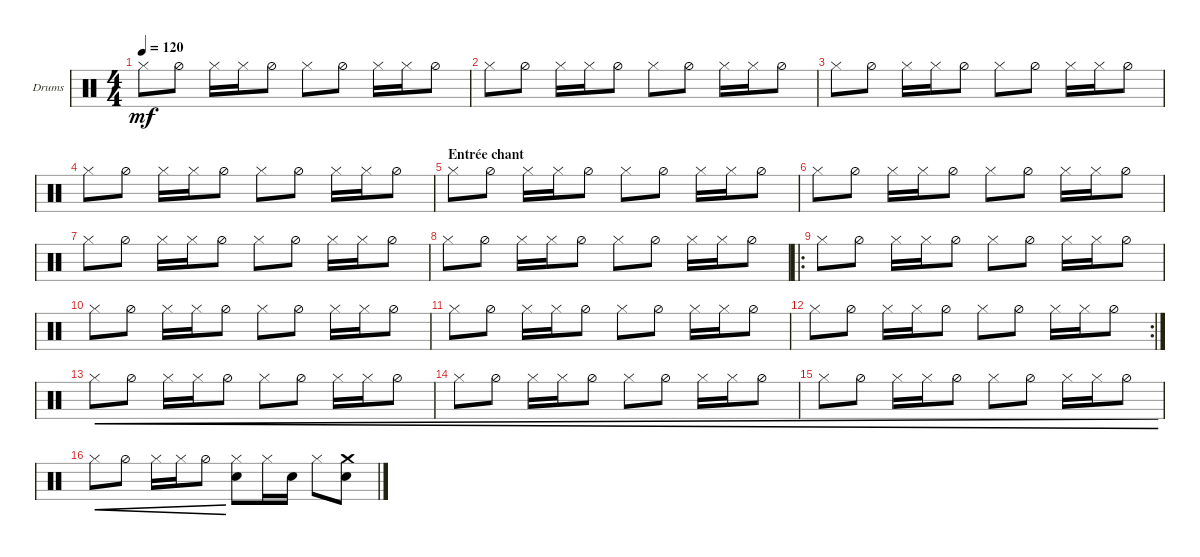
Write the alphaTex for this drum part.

\defaultSystemsLayout 4
\bracketExtendMode groupsimilarinstruments
\firstSystemTrackNameOrientation horizontal
\otherSystemsTrackNameOrientation horizontal
\track ("Drumkit" "Drums") {instrument percussion}
\staff {score}
\articulation defaults
\ts (4 4)
\tempo 120
\clef neutral
\ks c "Hi-Hat (closed)".8{dy mf} "Hi-Hat (half)".8 "Hi-Hat (closed)".16 "Hi-Hat (closed)".16 "Hi-Hat (half)".8 "Hi-Hat (closed)".8 "Hi-Hat (half)".8 "Hi-Hat (closed)".16 "Hi-Hat (closed)".16 "Hi-Hat (half)".8
|
"Hi-Hat (closed)".8 "Hi-Hat (half)".8 "Hi-Hat (closed)".16 "Hi-Hat (closed)".16 "Hi-Hat (half)".8 "Hi-Hat (closed)".8 "Hi-Hat (half)".8 "Hi-Hat (closed)".16 "Hi-Hat (closed)".16 "Hi-Hat (half)".8 |
"Hi-Hat (closed)".8 "Hi-Hat (half)".8 "Hi-Hat (closed)".16 "Hi-Hat (closed)".16 "Hi-Hat (half)".8 "Hi-Hat (closed)".8 "Hi-Hat (half)".8 "Hi-Hat (closed)".16 "Hi-Hat (closed)".16 "Hi-Hat (half)".8 |
"Hi-Hat (closed)".8 "Hi-Hat (half)".8 "Hi-Hat (closed)".16 "Hi-Hat (closed)".16 "Hi-Hat (half)".8 "Hi-Hat (closed)".8 "Hi-Hat (half)".8 "Hi-Hat (closed)".16 "Hi-Hat (closed)".16 "Hi-Hat (half)".8 |
\section ("" "Entrée chant")
"Hi-Hat (closed)".8 "Hi-Hat (half)".8 "Hi-Hat (closed)".16 "Hi-Hat (closed)".16 "Hi-Hat (half)".8 "Hi-Hat (closed)".8 "Hi-Hat (half)".8 "Hi-Hat (closed)".16 "Hi-Hat (closed)".16 "Hi-Hat (half)".8 |
"Hi-Hat (closed)".8 "Hi-Hat (half)".8 "Hi-Hat (closed)".16 "Hi-Hat (closed)".16 "Hi-Hat (half)".8 "Hi-Hat (closed)".8 "Hi-Hat (half)".8 "Hi-Hat (closed)".16 "Hi-Hat (closed)".16 "Hi-Hat (half)".8 |
"Hi-Hat (closed)".8 "Hi-Hat (half)".8 "Hi-Hat (closed)".16 "Hi-Hat (closed)".16 "Hi-Hat (half)".8 "Hi-Hat (closed)".8 "Hi-Hat (half)".8 "Hi-Hat (closed)".16 "Hi-Hat (closed)".16 "Hi-Hat (half)".8 |
"Hi-Hat (closed)".8 "Hi-Hat (half)".8 "Hi-Hat (closed)".16 "Hi-Hat (closed)".16 "Hi-Hat (half)".8 "Hi-Hat (closed)".8 "Hi-Hat (half)".8 "Hi-Hat (closed)".16 "Hi-Hat (closed)".16 "Hi-Hat (half)".8 |
\ro "Hi-Hat (closed)".8 "Hi-Hat (half)".8 "Hi-Hat (closed)".16 "Hi-Hat (closed)".16 "Hi-Hat (half)".8 "Hi-Hat (closed)".8 "Hi-Hat (half)".8 "Hi-Hat (closed)".16 "Hi-Hat (closed)".16 "Hi-Hat (half)".8
|
"Hi-Hat (closed)".8 "Hi-Hat (half)".8 "Hi-Hat (closed)".16 "Hi-Hat (closed)".16 "Hi-Hat (half)".8 "Hi-Hat (closed)".8 "Hi-Hat (half)".8 "Hi-Hat (closed)".16 "Hi-Hat (closed)".16 "Hi-Hat (half)".8 |
"Hi-Hat (closed)".8 "Hi-Hat (half)".8 "Hi-Hat (closed)".16 "Hi-Hat (closed)".16 "Hi-Hat (half)".8 "Hi-Hat (closed)".8 "Hi-Hat (half)".8 "Hi-Hat (closed)".16 "Hi-Hat (closed)".16 "Hi-Hat (half)".8 |
\rc 2 "Hi-Hat (closed)".8 "Hi-Hat (half)".8 "Hi-Hat (closed)".16 "Hi-Hat (closed)".16 "Hi-Hat (half)".8 "Hi-Hat (closed)".8 "Hi-Hat (half)".8 "Hi-Hat (closed)".16 "Hi-Hat (closed)".16 "Hi-Hat (half)".8
|
"Hi-Hat (closed)".8{cre} "Hi-Hat (half)".8{cre} "Hi-Hat (closed)".16{cre} "Hi-Hat (closed)".16{cre} "Hi-Hat (half)".8{cre} "Hi-Hat (closed)".8{cre} "Hi-Hat (half)".8{cre} "Hi-Hat (closed)".16{cre} "Hi-Hat (closed)".16{cre} "Hi-Hat (half)".8{cre} |
"Hi-Hat (closed)".8{cre} "Hi-Hat (half)".8{cre} "Hi-Hat (closed)".16{cre} "Hi-Hat (closed)".16{cre} "Hi-Hat (half)".8{cre} "Hi-Hat (closed)".8{cre} "Hi-Hat (half)".8{cre} "Hi-Hat (closed)".16{cre} "Hi-Hat (closed)".16{cre} "Hi-Hat (half)".8{cre} |
\scale
0.525672 "Hi-Hat (closed)".8{cre} "Hi-Hat (half)".8{cre} "Hi-Hat (closed)".16{cre} "Hi-Hat (closed)".16{cre} "Hi-Hat (half)".8{cre} "Hi-Hat (closed)".8{cre} "Hi-Hat (half)".8{cre} "Hi-Hat (closed)".16{cre} "Hi-Hat (closed)".16{cre} "Hi-Hat (half)".8{cre} |
\scale
0.474328 "Hi-Hat (closed)".8{cre} "Hi-Hat (half)".8{cre} "Hi-Hat (closed)".16{cre} "Hi-Hat (closed)".16{cre} "Hi-Hat (half)".8{cre} ("Snare (hit) 2" "Hi-Hat (closed)").8 "Hi-Hat (closed)".16 "Snare (hit) 2".16 "Hi-Hat (closed)".8 ("Snare (hit) 2" "Crash medium (hit)").8
